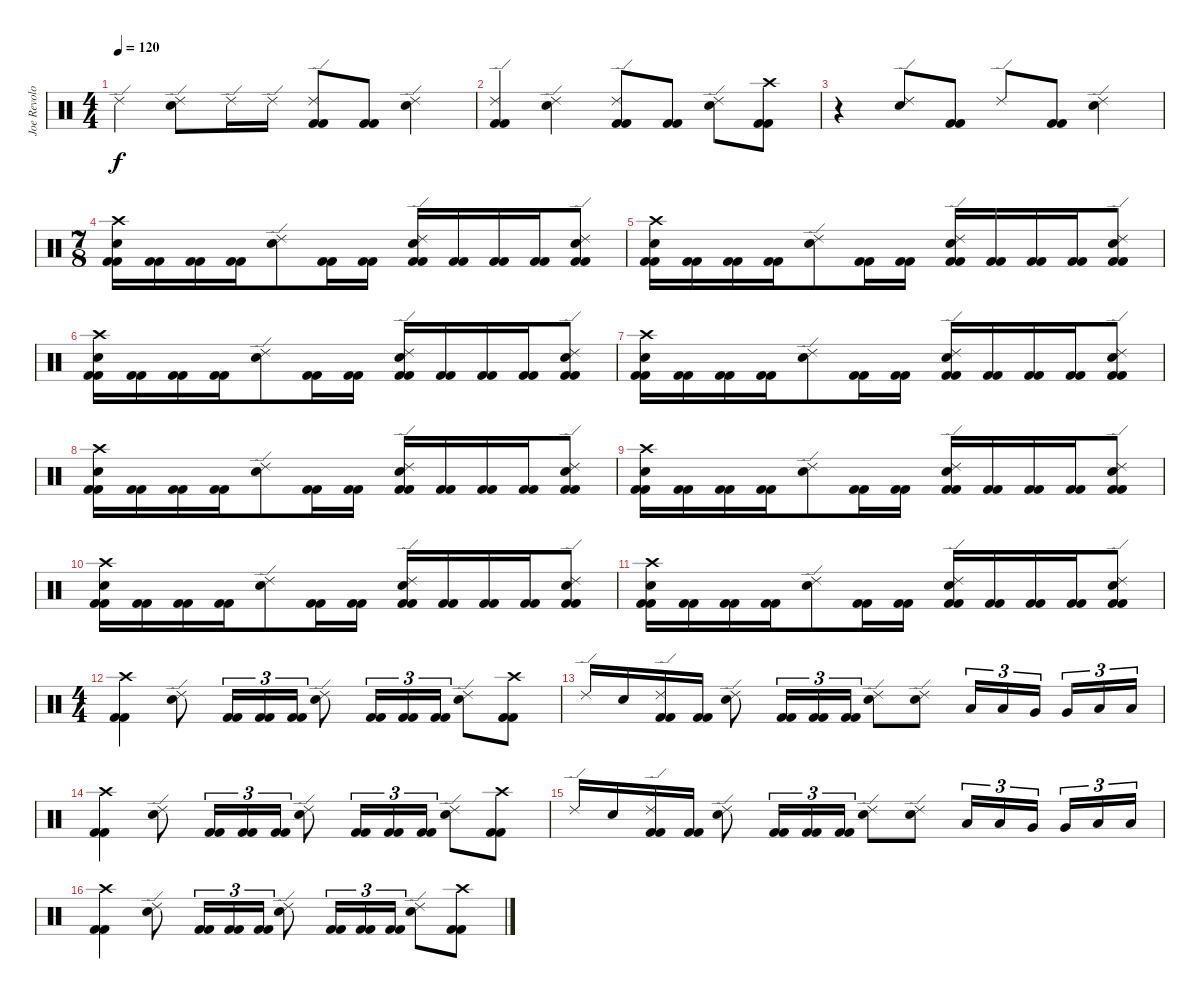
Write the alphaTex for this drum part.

\track ("Joe Revolo" "Joe Revolo") {instrument percussion}
\staff {score}
\articulation defaults
\ts (4 4)
\tempo 120
\clef neutral
\ks c "Ride (edge) 2".4{dy f}
("Ride (edge) 2" "Electric Snare (hit)").8 "Ride (edge) 2".16 "Ride (edge) 2".16 ("Ride (edge) 2" "Kick (hit) 2" "Kick (hit) 2").8 ("Kick (hit) 2" "Kick (hit) 2").8 ("Ride (edge) 2" "Electric Snare (hit)").4 |
("Ride (edge) 2" "Kick (hit) 2" "Kick (hit) 2").4 ("Ride (edge) 2" "Electric Snare (hit)").4 ("Ride (edge) 2" "Kick (hit) 2" "Kick (hit) 2").8 ("Kick (hit) 2" "Kick (hit) 2").8 ("Ride (edge) 2" "Electric Snare (hit)").8 ("Crash high (hit)" "Kick (hit) 2" "Kick (hit) 2").8 |
r.4 ("Ride (edge) 2" "Electric Snare (hit)").8 ("Kick (hit) 2" "Kick (hit) 2").8 "Ride (edge) 2".8 ("Kick (hit) 2" "Kick (hit) 2").8 ("Ride (edge) 2" "Electric Snare (hit)").4 |
\ts (7 8)
("Crash high (hit)" "Electric Snare (hit)" "Kick (hit) 2" "Kick (hit) 2").16 ("Kick (hit) 2" "Kick (hit) 2").16 ("Kick (hit) 2" "Kick (hit) 2").16 ("Kick (hit) 2" "Kick (hit) 2").16 ("Ride (edge) 2" "Electric Snare (hit)").8 ("Kick (hit) 2" "Kick (hit) 2").16 ("Kick (hit) 2" "Kick (hit) 2").16 ("Ride (edge) 2" "Electric Snare (hit)" "Kick (hit) 2" "Kick (hit) 2").16 ("Kick (hit) 2" "Kick (hit) 2").16 ("Kick (hit) 2" "Kick (hit) 2").16 ("Kick (hit) 2" "Kick (hit) 2").16 ("Ride (edge) 2" "Electric Snare (hit)" "Kick (hit) 2" "Kick (hit) 2").8 |
("Crash high (hit)" "Electric Snare (hit)" "Kick (hit) 2" "Kick (hit) 2").16 ("Kick (hit) 2" "Kick (hit) 2").16 ("Kick (hit) 2" "Kick (hit) 2").16 ("Kick (hit) 2" "Kick (hit) 2").16 ("Ride (edge) 2" "Electric Snare (hit)").8 ("Kick (hit) 2" "Kick (hit) 2").16 ("Kick (hit) 2" "Kick (hit) 2").16 ("Ride (edge) 2" "Electric Snare (hit)" "Kick (hit) 2" "Kick (hit) 2").16 ("Kick (hit) 2" "Kick (hit) 2").16 ("Kick (hit) 2" "Kick (hit) 2").16 ("Kick (hit) 2" "Kick (hit) 2").16 ("Ride (edge) 2" "Electric Snare (hit)" "Kick (hit) 2" "Kick (hit) 2").8 |
("Crash high (hit)" "Electric Snare (hit)" "Kick (hit) 2" "Kick (hit) 2").16 ("Kick (hit) 2" "Kick (hit) 2").16 ("Kick (hit) 2" "Kick (hit) 2").16 ("Kick (hit) 2" "Kick (hit) 2").16 ("Ride (edge) 2" "Electric Snare (hit)").8 ("Kick (hit) 2" "Kick (hit) 2").16 ("Kick (hit) 2" "Kick (hit) 2").16 ("Ride (edge) 2" "Electric Snare (hit)" "Kick (hit) 2" "Kick (hit) 2").16 ("Kick (hit) 2" "Kick (hit) 2").16 ("Kick (hit) 2" "Kick (hit) 2").16 ("Kick (hit) 2" "Kick (hit) 2").16 ("Ride (edge) 2" "Electric Snare (hit)" "Kick (hit) 2" "Kick (hit) 2").8 |
("Crash high (hit)" "Electric Snare (hit)" "Kick (hit) 2" "Kick (hit) 2").16 ("Kick (hit) 2" "Kick (hit) 2").16 ("Kick (hit) 2" "Kick (hit) 2").16 ("Kick (hit) 2" "Kick (hit) 2").16 ("Ride (edge) 2" "Electric Snare (hit)").8 ("Kick (hit) 2" "Kick (hit) 2").16 ("Kick (hit) 2" "Kick (hit) 2").16 ("Ride (edge) 2" "Electric Snare (hit)" "Kick (hit) 2" "Kick (hit) 2").16 ("Kick (hit) 2" "Kick (hit) 2").16 ("Kick (hit) 2" "Kick (hit) 2").16 ("Kick (hit) 2" "Kick (hit) 2").16 ("Ride (edge) 2" "Electric Snare (hit)" "Kick (hit) 2" "Kick (hit) 2").8 |
("Crash high (hit)" "Electric Snare (hit)" "Kick (hit) 2" "Kick (hit) 2").16 ("Kick (hit) 2" "Kick (hit) 2").16 ("Kick (hit) 2" "Kick (hit) 2").16 ("Kick (hit) 2" "Kick (hit) 2").16 ("Ride (edge) 2" "Electric Snare (hit)").8 ("Kick (hit) 2" "Kick (hit) 2").16 ("Kick (hit) 2" "Kick (hit) 2").16 ("Ride (edge) 2" "Electric Snare (hit)" "Kick (hit) 2" "Kick (hit) 2").16 ("Kick (hit) 2" "Kick (hit) 2").16 ("Kick (hit) 2" "Kick (hit) 2").16 ("Kick (hit) 2" "Kick (hit) 2").16 ("Ride (edge) 2" "Electric Snare (hit)" "Kick (hit) 2" "Kick (hit) 2").8 |
("Crash high (hit)" "Electric Snare (hit)" "Kick (hit) 2" "Kick (hit) 2").16 ("Kick (hit) 2" "Kick (hit) 2").16 ("Kick (hit) 2" "Kick (hit) 2").16 ("Kick (hit) 2" "Kick (hit) 2").16 ("Ride (edge) 2" "Electric Snare (hit)").8 ("Kick (hit) 2" "Kick (hit) 2").16 ("Kick (hit) 2" "Kick (hit) 2").16 ("Ride (edge) 2" "Electric Snare (hit)" "Kick (hit) 2" "Kick (hit) 2").16 ("Kick (hit) 2" "Kick (hit) 2").16 ("Kick (hit) 2" "Kick (hit) 2").16 ("Kick (hit) 2" "Kick (hit) 2").16 ("Ride (edge) 2" "Electric Snare (hit)" "Kick (hit) 2" "Kick (hit) 2").8 |
("Crash high (hit)" "Electric Snare (hit)" "Kick (hit) 2" "Kick (hit) 2").16 ("Kick (hit) 2" "Kick (hit) 2").16 ("Kick (hit) 2" "Kick (hit) 2").16 ("Kick (hit) 2" "Kick (hit) 2").16 ("Ride (edge) 2" "Electric Snare (hit)").8 ("Kick (hit) 2" "Kick (hit) 2").16 ("Kick (hit) 2" "Kick (hit) 2").16 ("Ride (edge) 2" "Electric Snare (hit)" "Kick (hit) 2" "Kick (hit) 2").16 ("Kick (hit) 2" "Kick (hit) 2").16 ("Kick (hit) 2" "Kick (hit) 2").16 ("Kick (hit) 2" "Kick (hit) 2").16 ("Ride (edge) 2" "Electric Snare (hit)" "Kick (hit) 2" "Kick (hit) 2").8 |
("Crash high (hit)" "Electric Snare (hit)" "Kick (hit) 2" "Kick (hit) 2").16 ("Kick (hit) 2" "Kick (hit) 2").16 ("Kick (hit) 2" "Kick (hit) 2").16 ("Kick (hit) 2" "Kick (hit) 2").16 ("Ride (edge) 2" "Electric Snare (hit)").8 ("Kick (hit) 2" "Kick (hit) 2").16 ("Kick (hit) 2" "Kick (hit) 2").16 ("Ride (edge) 2" "Electric Snare (hit)" "Kick (hit) 2" "Kick (hit) 2").16 ("Kick (hit) 2" "Kick (hit) 2").16 ("Kick (hit) 2" "Kick (hit) 2").16 ("Kick (hit) 2" "Kick (hit) 2").16 ("Ride (edge) 2" "Electric Snare (hit)" "Kick (hit) 2" "Kick (hit) 2").8 |
\ts (4 4)
("Crash high (hit)" "Kick (hit) 2" "Kick (hit) 2").4 ("Ride (edge) 2" "Electric Snare (hit)").8 ("Kick (hit) 2" "Kick (hit) 2").16{tu (3 2)} ("Kick (hit) 2" "Kick (hit) 2").16{tu (3 2)} ("Kick (hit) 2" "Kick (hit) 2").16{tu (3 2)} ("Ride (edge) 2" "Electric Snare (hit)").8 ("Kick (hit) 2" "Kick (hit) 2").16{tu (3 2)} ("Kick (hit) 2" "Kick (hit) 2").16{tu (3 2)} ("Kick (hit) 2" "Kick (hit) 2").16{tu (3 2)} ("Ride (edge) 2" "Electric Snare (hit)").8 ("Crash high (hit)" "Kick (hit) 2" "Kick (hit) 2").8 |
"Ride (edge) 2".16 "Electric Snare (hit)".16 ("Ride (edge) 2" "Kick (hit) 2" "Kick (hit) 2").16 ("Kick (hit) 2" "Kick (hit) 2").16 ("Ride (edge) 2" "Electric Snare (hit)").8 ("Kick (hit) 2" "Kick (hit) 2").16{tu (3 2)} ("Kick (hit) 2" "Kick (hit) 2").16{tu (3 2)} ("Kick (hit) 2" "Kick (hit) 2").16{tu (3 2)} ("Ride (edge) 2" "Electric Snare (hit)").8 ("Ride (edge) 2" "Electric Snare (hit)").8 "Low Tom (hit)".16{tu (3 2)} "Low Tom (hit)".16{tu (3 2)} "Very Low Tom (hit)".16{tu (3 2) beam splitsecondary} "Very Low Tom (hit)".16{tu (3 2)} "Low Floor Tom (hit)".16{tu (3 2)} "Low Floor Tom (hit)".16{tu (3 2)} |
("Crash high (hit)" "Kick (hit) 2" "Kick (hit) 2").4 ("Ride (edge) 2" "Electric Snare (hit)").8 ("Kick (hit) 2" "Kick (hit) 2").16{tu (3 2)} ("Kick (hit) 2" "Kick (hit) 2").16{tu (3 2)} ("Kick (hit) 2" "Kick (hit) 2").16{tu (3 2)} ("Ride (edge) 2" "Electric Snare (hit)").8 ("Kick (hit) 2" "Kick (hit) 2").16{tu (3 2)} ("Kick (hit) 2" "Kick (hit) 2").16{tu (3 2)} ("Kick (hit) 2" "Kick (hit) 2").16{tu (3 2)} ("Ride (edge) 2" "Electric Snare (hit)").8 ("Crash high (hit)" "Kick (hit) 2" "Kick (hit) 2").8 |
"Ride (edge) 2".16 "Electric Snare (hit)".16 ("Ride (edge) 2" "Kick (hit) 2" "Kick (hit) 2").16 ("Kick (hit) 2" "Kick (hit) 2").16 ("Ride (edge) 2" "Electric Snare (hit)").8 ("Kick (hit) 2" "Kick (hit) 2").16{tu (3 2)} ("Kick (hit) 2" "Kick (hit) 2").16{tu (3 2)} ("Kick (hit) 2" "Kick (hit) 2").16{tu (3 2)} ("Ride (edge) 2" "Electric Snare (hit)").8 ("Ride (edge) 2" "Electric Snare (hit)").8 "Low Tom (hit)".16{tu (3 2)} "Low Tom (hit)".16{tu (3 2)} "Very Low Tom (hit)".16{tu (3 2) beam splitsecondary} "Very Low Tom (hit)".16{tu (3 2)} "Low Floor Tom (hit)".16{tu (3 2)} "Low Floor Tom (hit)".16{tu (3 2)} |
("Crash high (hit)" "Kick (hit) 2" "Kick (hit) 2").4 ("Ride (edge) 2" "Electric Snare (hit)").8 ("Kick (hit) 2" "Kick (hit) 2").16{tu (3 2)} ("Kick (hit) 2" "Kick (hit) 2").16{tu (3 2)} ("Kick (hit) 2" "Kick (hit) 2").16{tu (3 2)} ("Ride (edge) 2" "Electric Snare (hit)").8 ("Kick (hit) 2" "Kick (hit) 2").16{tu (3 2)} ("Kick (hit) 2" "Kick (hit) 2").16{tu (3 2)} ("Kick (hit) 2" "Kick (hit) 2").16{tu (3 2)} ("Ride (edge) 2" "Electric Snare (hit)").8 ("Crash high (hit)" "Kick (hit) 2" "Kick (hit) 2").8
